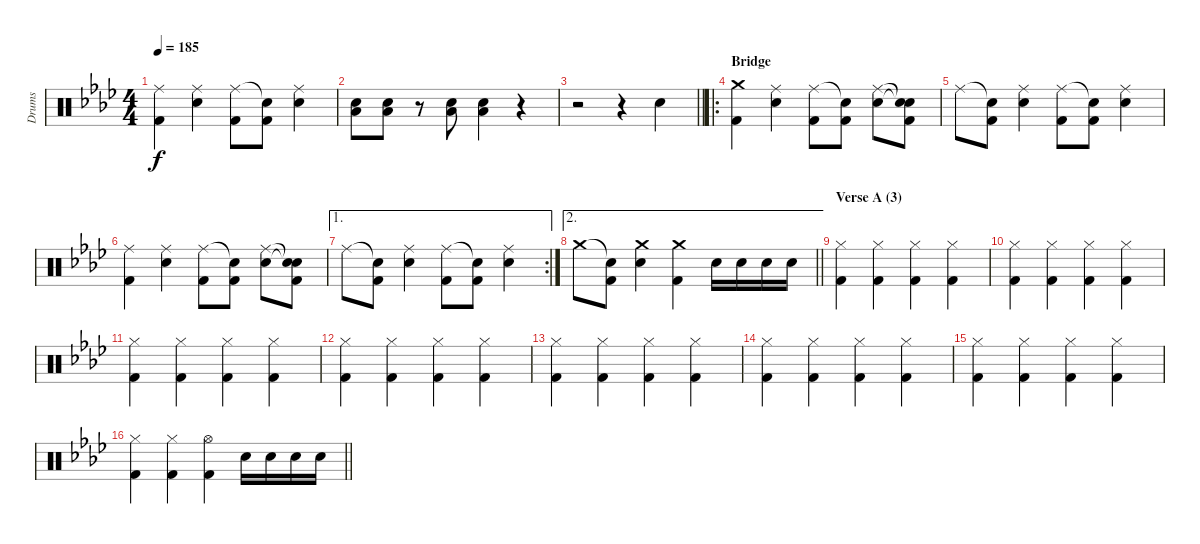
\track ("Drums" "Drums") {instrument percussion}
\staff {score}
\articulation defaults
\ts (4 4)
\tempo 185
\clef neutral
\ks fminor
("Ride (middle)" "Kick (hit) 2").4{dy f} ("Ride (middle)" "Electric Snare (hit)").4 ("Ride (middle)" "Kick (hit) 2").8 ("Snare (hit)"{t} "Kick (hit) 2").8 ("Ride (middle)" "Electric Snare (hit)").4 |
("Electric Snare (hit)" "Low Floor Tom (hit)").8 ("Electric Snare (hit)" "Low Floor Tom (hit)").8 r.8 ("Electric Snare (hit)" "Low Floor Tom (hit)").8 ("Electric Snare (hit)" "Low Floor Tom (hit)").4 r.4 |
\barLineRight lightlight
r.2 r.4 "Electric Snare (hit)".4 |
\ro
\section ("" "Bridge")
("Crash medium (hit)" "Kick (hit) 2").4 ("Ride (middle)" "Electric Snare (hit)").4 ("Ride (middle)" "Kick (hit) 2").8 ("Snare (hit)"{t} "Kick (hit) 2").8 ("Ride (middle)" "Electric Snare (hit)").8 ("Snare (hit)"{t} "Snare (hit)"{t} "Kick (hit) 2").8 |
"Ride (middle)".8 ("Snare (hit)"{t} "Kick (hit) 2").8 ("Ride (middle)" "Electric Snare (hit)").4 ("Ride (middle)" "Kick (hit) 2").8 ("Snare (hit)"{t} "Kick (hit) 2").8 ("Ride (middle)" "Electric Snare (hit)").4 |
("Ride (middle)" "Kick (hit) 2").4 ("Ride (middle)" "Electric Snare (hit)").4 ("Ride (middle)" "Kick (hit) 2").8 ("Snare (hit)"{t} "Kick (hit) 2").8 ("Ride (middle)" "Electric Snare (hit)").8 ("Snare (hit)"{t} "Snare (hit)"{t} "Kick (hit) 2").8 |
\ae 1
\rc 2 "Ride (middle)".8
("Snare (hit)"{t} "Kick (hit) 2").8 ("Ride (middle)" "Electric Snare (hit)").4 ("Ride (middle)" "Kick (hit) 2").8 ("Snare (hit)"{t} "Kick (hit) 2").8 ("Ride (middle)" "Electric Snare (hit)").4 |
\ae 2
\barLineRight lightlight "Crash medium (hit)".8
("Snare (hit)"{t} "Kick (hit) 2").8 ("Crash medium (hit)" "Electric Snare (hit)").4 ("Crash medium (hit)" "Kick (hit) 2").4 "Electric Snare (hit)".16 "Electric Snare (hit)".16 "Electric Snare (hit)".16 "Electric Snare (hit)".16 |
\section ("" "Verse A (3)")
("Hi-Hat (closed)" "Kick (hit) 2").4 ("Hi-Hat (closed)" "Kick (hit) 2").4 ("Hi-Hat (closed)" "Kick (hit) 2").4 ("Hi-Hat (closed)" "Kick (hit) 2").4 |
("Hi-Hat (closed)" "Kick (hit) 2").4 ("Hi-Hat (closed)" "Kick (hit) 2").4 ("Hi-Hat (closed)" "Kick (hit) 2").4 ("Hi-Hat (closed)" "Kick (hit) 2").4 |
("Hi-Hat (closed)" "Kick (hit) 2").4 ("Hi-Hat (closed)" "Kick (hit) 2").4 ("Hi-Hat (closed)" "Kick (hit) 2").4 ("Hi-Hat (closed)" "Kick (hit) 2").4 |
("Hi-Hat (closed)" "Kick (hit) 2").4 ("Hi-Hat (closed)" "Kick (hit) 2").4 ("Hi-Hat (closed)" "Kick (hit) 2").4 ("Hi-Hat (closed)" "Kick (hit) 2").4 |
("Hi-Hat (closed)" "Kick (hit) 2").4 ("Hi-Hat (closed)" "Kick (hit) 2").4 ("Hi-Hat (closed)" "Kick (hit) 2").4 ("Hi-Hat (closed)" "Kick (hit) 2").4 |
("Hi-Hat (closed)" "Kick (hit) 2").4 ("Hi-Hat (closed)" "Kick (hit) 2").4 ("Hi-Hat (closed)" "Kick (hit) 2").4 ("Hi-Hat (closed)" "Kick (hit) 2").4 |
("Hi-Hat (closed)" "Kick (hit) 2").4 ("Hi-Hat (closed)" "Kick (hit) 2").4 ("Hi-Hat (closed)" "Kick (hit) 2").4 ("Hi-Hat (closed)" "Kick (hit) 2").4 |
\barLineRight lightlight
("Hi-Hat (closed)" "Kick (hit) 2").4 ("Hi-Hat (closed)" "Kick (hit) 2").4 ("Hi-Hat (open)" "Kick (hit) 2").4 "Electric Snare (hit)".16 "Electric Snare (hit)".16 "Electric Snare (hit)".16 "Electric Snare (hit)".16
